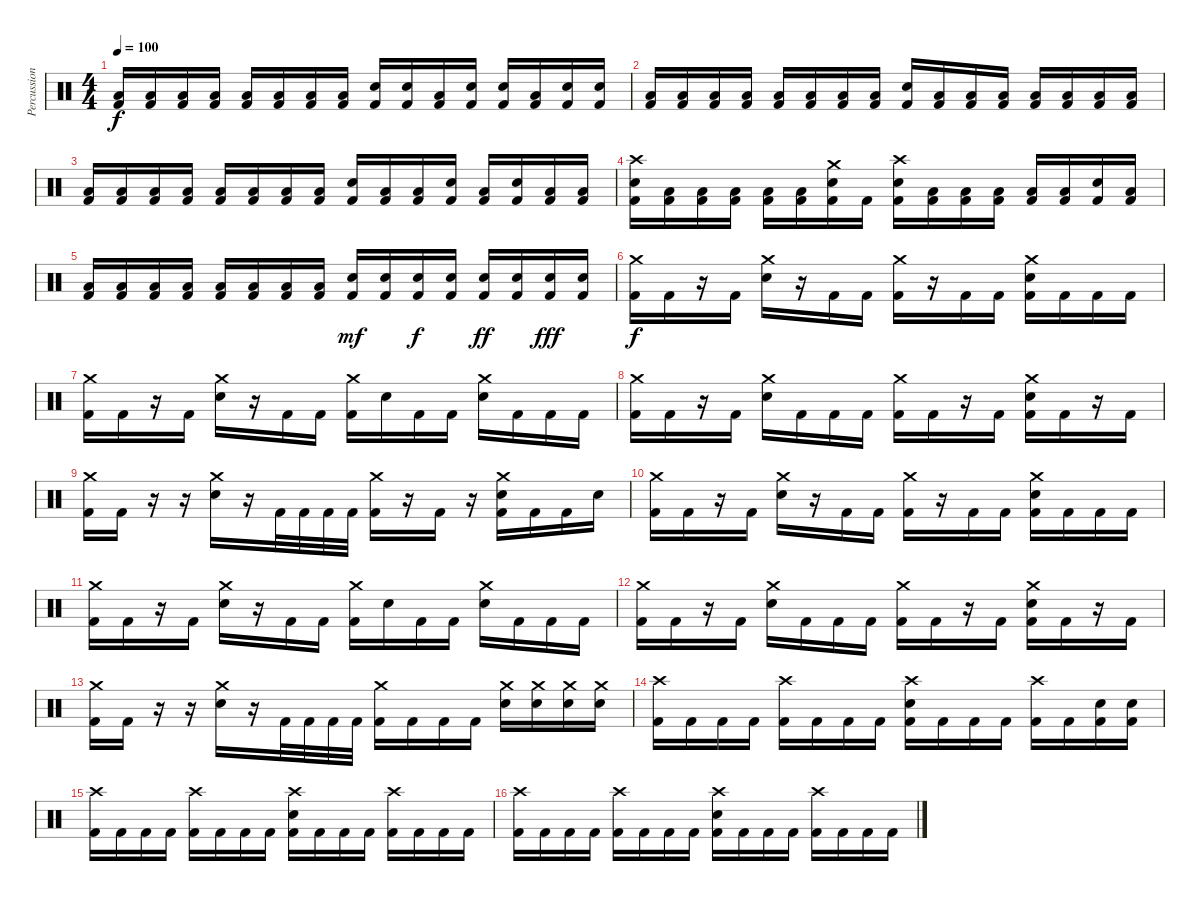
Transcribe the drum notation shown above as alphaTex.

\track ("Percussion" "Percussion") {instrument percussion}
\staff {score}
\articulation defaults
\ts (4 4)
\tempo 100
\clef neutral
\ks c
("Low Floor Tom (hit)" "Kick (hit) 2").16{dy f} ("Low Floor Tom (hit)" "Kick (hit) 2").16 ("Low Floor Tom (hit)" "Kick (hit) 2").16 ("Low Floor Tom (hit)" "Kick (hit) 2").16 ("Low Floor Tom (hit)" "Kick (hit) 2").16 ("Low Floor Tom (hit)" "Kick (hit) 2").16 ("Low Floor Tom (hit)" "Kick (hit) 2").16 ("Low Floor Tom (hit)" "Kick (hit) 2").16 ("Electric Snare (hit)" "Kick (hit) 2").16 ("Electric Snare (hit)" "Kick (hit) 2").16 ("Low Floor Tom (hit)" "Kick (hit) 2").16 ("Electric Snare (hit)" "Kick (hit) 2").16 ("Electric Snare (hit)" "Kick (hit) 2").16 ("Low Floor Tom (hit)" "Kick (hit) 2").16 ("Electric Snare (hit)" "Kick (hit) 2").16 ("Electric Snare (hit)" "Kick (hit) 2").16 |
("Low Floor Tom (hit)" "Kick (hit) 2").16 ("Low Floor Tom (hit)" "Kick (hit) 2").16 ("Low Floor Tom (hit)" "Kick (hit) 2").16 ("Low Floor Tom (hit)" "Kick (hit) 2").16 ("Low Floor Tom (hit)" "Kick (hit) 2").16 ("Low Floor Tom (hit)" "Kick (hit) 2").16 ("Low Floor Tom (hit)" "Kick (hit) 2").16 ("Low Floor Tom (hit)" "Kick (hit) 2").16 ("Electric Snare (hit)" "Kick (hit) 2").16 ("Low Floor Tom (hit)" "Kick (hit) 2").16 ("Low Floor Tom (hit)" "Kick (hit) 2").16 ("Low Floor Tom (hit)" "Kick (hit) 2").16 ("Low Floor Tom (hit)" "Kick (hit) 2").16 ("Low Floor Tom (hit)" "Kick (hit) 2").16 ("Low Floor Tom (hit)" "Kick (hit) 2").16 ("Low Floor Tom (hit)" "Kick (hit) 2").16 |
("Low Floor Tom (hit)" "Kick (hit) 2").16 ("Low Floor Tom (hit)" "Kick (hit) 2").16 ("Low Floor Tom (hit)" "Kick (hit) 2").16 ("Low Floor Tom (hit)" "Kick (hit) 2").16 ("Low Floor Tom (hit)" "Kick (hit) 2").16 ("Low Floor Tom (hit)" "Kick (hit) 2").16 ("Low Floor Tom (hit)" "Kick (hit) 2").16 ("Low Floor Tom (hit)" "Kick (hit) 2").16 ("Electric Snare (hit)" "Kick (hit) 2").16 ("Low Floor Tom (hit)" "Kick (hit) 2").16 ("Low Floor Tom (hit)" "Kick (hit) 2").16 ("Electric Snare (hit)" "Kick (hit) 2").16 ("Low Floor Tom (hit)" "Kick (hit) 2").16 ("Electric Snare (hit)" "Kick (hit) 2").16 ("Low Floor Tom (hit)" "Kick (hit) 2").16 ("Low Floor Tom (hit)" "Kick (hit) 2").16 |
("Crash high (hit)" "Electric Snare (hit)" "Kick (hit) 2").16 ("Low Floor Tom (hit)" "Kick (hit) 2").16 ("Low Floor Tom (hit)" "Kick (hit) 2").16 ("Low Floor Tom (hit)" "Kick (hit) 2").16 ("Low Floor Tom (hit)" "Kick (hit) 2").16 ("Low Floor Tom (hit)" "Kick (hit) 2").16 ("Crash medium (hit)" "Electric Snare (hit)" "Kick (hit) 2").16 "Kick (hit) 2".16 ("Crash high (hit)" "Electric Snare (hit)" "Kick (hit) 2").16 ("Low Floor Tom (hit)" "Kick (hit) 2").16 ("Low Floor Tom (hit)" "Kick (hit) 2").16 ("Low Floor Tom (hit)" "Kick (hit) 2").16 ("Low Floor Tom (hit)" "Kick (hit) 2").16 ("Low Floor Tom (hit)" "Kick (hit) 2").16 ("Electric Snare (hit)" "Kick (hit) 2").16 ("Low Floor Tom (hit)" "Kick (hit) 2").16 |
("Low Floor Tom (hit)" "Kick (hit) 2").16 ("Low Floor Tom (hit)" "Kick (hit) 2").16 ("Low Floor Tom (hit)" "Kick (hit) 2").16 ("Low Floor Tom (hit)" "Kick (hit) 2").16 ("Low Floor Tom (hit)" "Kick (hit) 2").16 ("Low Floor Tom (hit)" "Kick (hit) 2").16 ("Low Floor Tom (hit)" "Kick (hit) 2").16 ("Low Floor Tom (hit)" "Kick (hit) 2").16 ("Electric Snare (hit)" "Kick (hit) 2").16{dy mf} ("Electric Snare (hit)" "Kick (hit) 2").16 ("Electric Snare (hit)" "Kick (hit) 2").16{dy f} ("Electric Snare (hit)" "Kick (hit) 2").16 ("Electric Snare (hit)" "Kick (hit) 2").16{dy ff} ("Electric Snare (hit)" "Kick (hit) 2").16 ("Electric Snare (hit)" "Kick (hit) 2").16{dy fff} ("Electric Snare (hit)" "Kick (hit) 2").16 |
("Crash medium (hit)" "Kick (hit) 2").16{dy f} "Kick (hit) 2".16 r.16 "Kick (hit) 2".16 ("Crash medium (hit)" "Electric Snare (hit)").16 r.16 "Kick (hit) 2".16 "Kick (hit) 2".16 ("Crash medium (hit)" "Kick (hit) 2").16 r.16 "Kick (hit) 2".16 "Kick (hit) 2".16 ("Crash medium (hit)" "Electric Snare (hit)" "Kick (hit) 2").16 "Kick (hit) 2".16 "Kick (hit) 2".16 "Kick (hit) 2".16 |
("Crash medium (hit)" "Kick (hit) 2").16 "Kick (hit) 2".16 r.16 "Kick (hit) 2".16 ("Crash medium (hit)" "Electric Snare (hit)").16 r.16 "Kick (hit) 2".16 "Kick (hit) 2".16 ("Crash medium (hit)" "Kick (hit) 2").16 "Electric Snare (hit)".16 "Kick (hit) 2".16 "Kick (hit) 2".16 ("Crash medium (hit)" "Electric Snare (hit)").16 "Kick (hit) 2".16 "Kick (hit) 2".16 "Kick (hit) 2".16 |
("Crash medium (hit)" "Kick (hit) 2").16 "Kick (hit) 2".16 r.16 "Kick (hit) 2".16 ("Crash medium (hit)" "Electric Snare (hit)").16 "Kick (hit) 2".16 "Kick (hit) 2".16 "Kick (hit) 2".16 ("Crash medium (hit)" "Kick (hit) 2").16 "Kick (hit) 2".16 r.16 "Kick (hit) 2".16 ("Crash medium (hit)" "Electric Snare (hit)" "Kick (hit) 2").16 "Kick (hit) 2".16 r.16 "Kick (hit) 2".16 |
("Crash medium (hit)" "Kick (hit) 2").16 "Kick (hit) 2".16 r.16 r.16 ("Crash medium (hit)" "Electric Snare (hit)").16 r.16 "Kick (hit) 2".32 "Kick (hit) 2".32 "Kick (hit) 2".32 "Kick (hit) 2".32 ("Crash medium (hit)" "Kick (hit) 2").16 r.16 "Kick (hit) 2".16 r.16 ("Crash medium (hit)" "Electric Snare (hit)" "Kick (hit) 2").16 "Kick (hit) 2".16 "Kick (hit) 2".16 "Electric Snare (hit)".16 |
("Crash medium (hit)" "Kick (hit) 2").16 "Kick (hit) 2".16 r.16 "Kick (hit) 2".16 ("Crash medium (hit)" "Electric Snare (hit)").16 r.16 "Kick (hit) 2".16 "Kick (hit) 2".16 ("Crash medium (hit)" "Kick (hit) 2").16 r.16 "Kick (hit) 2".16 "Kick (hit) 2".16 ("Crash medium (hit)" "Electric Snare (hit)" "Kick (hit) 2").16 "Kick (hit) 2".16 "Kick (hit) 2".16 "Kick (hit) 2".16 |
("Crash medium (hit)" "Kick (hit) 2").16 "Kick (hit) 2".16 r.16 "Kick (hit) 2".16 ("Crash medium (hit)" "Electric Snare (hit)").16 r.16 "Kick (hit) 2".16 "Kick (hit) 2".16 ("Crash medium (hit)" "Kick (hit) 2").16 "Electric Snare (hit)".16 "Kick (hit) 2".16 "Kick (hit) 2".16 ("Crash medium (hit)" "Electric Snare (hit)").16 "Kick (hit) 2".16 "Kick (hit) 2".16 "Kick (hit) 2".16 |
("Crash medium (hit)" "Kick (hit) 2").16 "Kick (hit) 2".16 r.16 "Kick (hit) 2".16 ("Crash medium (hit)" "Electric Snare (hit)").16 "Kick (hit) 2".16 "Kick (hit) 2".16 "Kick (hit) 2".16 ("Crash medium (hit)" "Kick (hit) 2").16 "Kick (hit) 2".16 r.16 "Kick (hit) 2".16 ("Crash medium (hit)" "Electric Snare (hit)" "Kick (hit) 2").16 "Kick (hit) 2".16 r.16 "Kick (hit) 2".16 |
("Crash medium (hit)" "Kick (hit) 2").16 "Kick (hit) 2".16 r.16 r.16 ("Crash medium (hit)" "Electric Snare (hit)").16 r.16 "Kick (hit) 2".32 "Kick (hit) 2".32 "Kick (hit) 2".32 "Kick (hit) 2".32 ("Crash medium (hit)" "Kick (hit) 2").16 "Kick (hit) 2".16 "Kick (hit) 2".16 "Kick (hit) 2".16 ("Crash medium (hit)" "Electric Snare (hit)").16 ("Crash medium (hit)" "Electric Snare (hit)").16 ("Crash medium (hit)" "Electric Snare (hit)").16 ("Crash medium (hit)" "Electric Snare (hit)").16 |
("Crash high (hit)" "Kick (hit) 2").16 "Kick (hit) 2".16 "Kick (hit) 2".16 "Kick (hit) 2".16 ("Crash high (hit)" "Kick (hit) 2").16 "Kick (hit) 2".16 "Kick (hit) 2".16 "Kick (hit) 2".16 ("Crash high (hit)" "Electric Snare (hit)" "Kick (hit) 2").16 "Kick (hit) 2".16 "Kick (hit) 2".16 "Kick (hit) 2".16 ("Crash high (hit)" "Kick (hit) 2").16 "Kick (hit) 2".16 ("Electric Snare (hit)" "Kick (hit) 2").16 ("Electric Snare (hit)" "Kick (hit) 2").16 |
("Crash high (hit)" "Kick (hit) 2").16 "Kick (hit) 2".16 "Kick (hit) 2".16 "Kick (hit) 2".16 ("Crash high (hit)" "Kick (hit) 2").16 "Kick (hit) 2".16 "Kick (hit) 2".16 "Kick (hit) 2".16 ("Crash high (hit)" "Electric Snare (hit)" "Kick (hit) 2").16 "Kick (hit) 2".16 "Kick (hit) 2".16 "Kick (hit) 2".16 ("Crash high (hit)" "Kick (hit) 2").16 "Kick (hit) 2".16 "Kick (hit) 2".16 "Kick (hit) 2".16 |
("Crash high (hit)" "Kick (hit) 2").16 "Kick (hit) 2".16 "Kick (hit) 2".16 "Kick (hit) 2".16 ("Crash high (hit)" "Kick (hit) 2").16 "Kick (hit) 2".16 "Kick (hit) 2".16 "Kick (hit) 2".16 ("Crash high (hit)" "Electric Snare (hit)" "Kick (hit) 2").16 "Kick (hit) 2".16 "Kick (hit) 2".16 "Kick (hit) 2".16 ("Crash high (hit)" "Kick (hit) 2").16 "Kick (hit) 2".16 "Kick (hit) 2".16 "Kick (hit) 2".16
